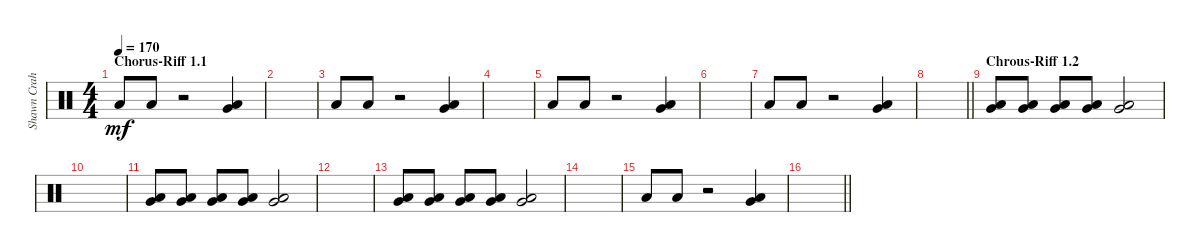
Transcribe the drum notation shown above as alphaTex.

\track ("Shawn Crahan" "Shawn Crah") {instrument percussion}
\staff {score}
\articulation defaults
\ts (4 4)
\section ("" "Chorus-Riff 1.1")
\tempo 170
\clef neutral
\ks c "Low Floor Tom (hit)".8{dy mf} "Low Floor Tom (hit)".8
r.2 ("Very Low Tom (hit)" "Low Floor Tom (hit)").4 |
|
"Low Floor Tom (hit)".8 "Low Floor Tom (hit)".8 r.2 ("Very Low Tom (hit)" "Low Floor Tom (hit)").4 |
|
"Low Floor Tom (hit)".8 "Low Floor Tom (hit)".8 r.2 ("Very Low Tom (hit)" "Low Floor Tom (hit)").4 |
|
"Low Floor Tom (hit)".8 "Low Floor Tom (hit)".8 r.2 ("Very Low Tom (hit)" "Low Floor Tom (hit)").4 |
\barLineRight lightlight
|
\section ("" "Chrous-Riff 1.2")
("Very Low Tom (hit)" "Low Floor Tom (hit)").8 ("Very Low Tom (hit)" "Low Floor Tom (hit)").8 ("Very Low Tom (hit)" "Low Floor Tom (hit)").8 ("Very Low Tom (hit)" "Low Floor Tom (hit)").8 ("Very Low Tom (hit)" "Low Floor Tom (hit)").2 |
|
("Very Low Tom (hit)" "Low Floor Tom (hit)").8 ("Very Low Tom (hit)" "Low Floor Tom (hit)").8 ("Very Low Tom (hit)" "Low Floor Tom (hit)").8 ("Very Low Tom (hit)" "Low Floor Tom (hit)").8 ("Very Low Tom (hit)" "Low Floor Tom (hit)").2 |
|
("Very Low Tom (hit)" "Low Floor Tom (hit)").8 ("Very Low Tom (hit)" "Low Floor Tom (hit)").8 ("Very Low Tom (hit)" "Low Floor Tom (hit)").8 ("Very Low Tom (hit)" "Low Floor Tom (hit)").8 ("Very Low Tom (hit)" "Low Floor Tom (hit)").2 |
|
"Low Floor Tom (hit)".8 "Low Floor Tom (hit)".8 r.2 ("Very Low Tom (hit)" "Low Floor Tom (hit)").4 |
\barLineRight lightlight
